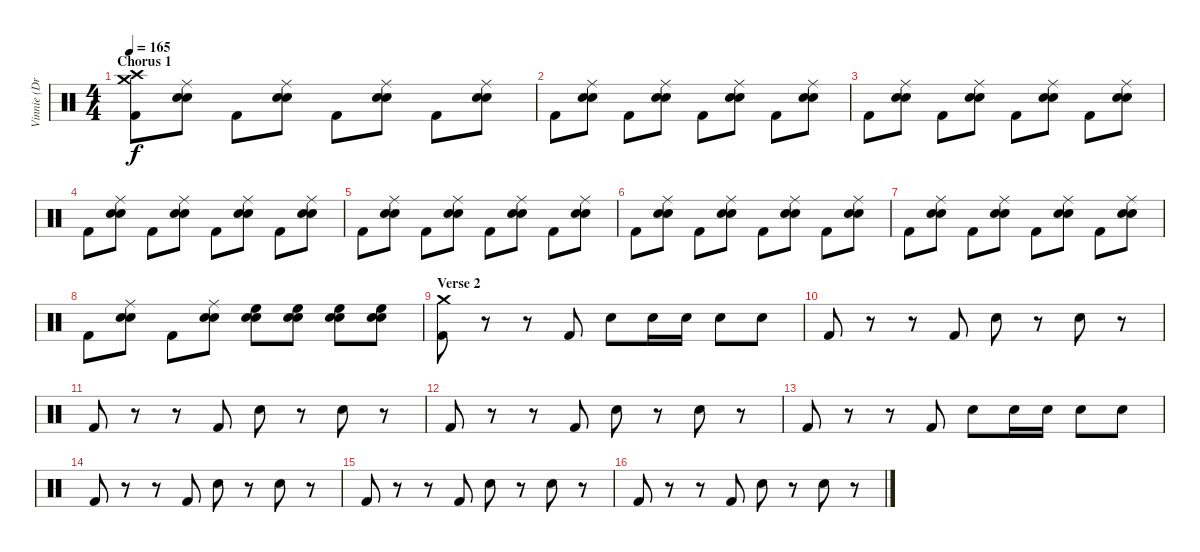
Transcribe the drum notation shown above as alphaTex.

\track ("Vinnie (Drums)" "Vinnie (Dr") {instrument percussion}
\staff {score}
\articulation defaults
\ts (4 4)
\section ("" "Chorus 1")
\tempo 165
\clef neutral
\ks c
("Kick (hit) 2" "Crash medium (hit)" "Crash high (hit)").8{dy f} ("Snare (hit) 2" "Electric Snare (hit)" "Ride (middle)").8 "Kick (hit) 2".8 ("Snare (hit) 2" "Electric Snare (hit)" "Ride (middle)").8 "Kick (hit) 2".8 ("Snare (hit) 2" "Electric Snare (hit)" "Ride (middle)").8 "Kick (hit) 2".8 ("Snare (hit) 2" "Electric Snare (hit)" "Ride (middle)").8 |
"Kick (hit) 2".8 ("Snare (hit) 2" "Electric Snare (hit)" "Ride (middle)").8 "Kick (hit) 2".8 ("Snare (hit) 2" "Electric Snare (hit)" "Ride (middle)").8 "Kick (hit) 2".8 ("Snare (hit) 2" "Electric Snare (hit)" "Ride (middle)").8 "Kick (hit) 2".8 ("Snare (hit) 2" "Electric Snare (hit)" "Ride (middle)").8 |
"Kick (hit) 2".8 ("Snare (hit) 2" "Electric Snare (hit)" "Ride (middle)").8 "Kick (hit) 2".8 ("Snare (hit) 2" "Electric Snare (hit)" "Ride (middle)").8 "Kick (hit) 2".8 ("Snare (hit) 2" "Electric Snare (hit)" "Ride (middle)").8 "Kick (hit) 2".8 ("Snare (hit) 2" "Electric Snare (hit)" "Ride (middle)").8 |
"Kick (hit) 2".8 ("Snare (hit) 2" "Electric Snare (hit)" "Ride (middle)").8 "Kick (hit) 2".8 ("Snare (hit) 2" "Electric Snare (hit)" "Ride (middle)").8 "Kick (hit) 2".8 ("Snare (hit) 2" "Electric Snare (hit)" "Ride (middle)").8 "Kick (hit) 2".8 ("Snare (hit) 2" "Electric Snare (hit)" "Ride (middle)").8 |
"Kick (hit) 2".8 ("Snare (hit) 2" "Electric Snare (hit)" "Ride (middle)").8 "Kick (hit) 2".8 ("Snare (hit) 2" "Electric Snare (hit)" "Ride (middle)").8 "Kick (hit) 2".8 ("Snare (hit) 2" "Electric Snare (hit)" "Ride (middle)").8 "Kick (hit) 2".8 ("Snare (hit) 2" "Electric Snare (hit)" "Ride (middle)").8 |
"Kick (hit) 2".8 ("Snare (hit) 2" "Electric Snare (hit)" "Ride (middle)").8 "Kick (hit) 2".8 ("Snare (hit) 2" "Electric Snare (hit)" "Ride (middle)").8 "Kick (hit) 2".8 ("Snare (hit) 2" "Electric Snare (hit)" "Ride (middle)").8 "Kick (hit) 2".8 ("Snare (hit) 2" "Electric Snare (hit)" "Ride (middle)").8 |
"Kick (hit) 2".8 ("Snare (hit) 2" "Electric Snare (hit)" "Ride (middle)").8 "Kick (hit) 2".8 ("Snare (hit) 2" "Electric Snare (hit)" "Ride (middle)").8 "Kick (hit) 2".8 ("Snare (hit) 2" "Electric Snare (hit)" "Ride (middle)").8 "Kick (hit) 2".8 ("Snare (hit) 2" "Electric Snare (hit)" "Ride (middle)").8 |
"Kick (hit) 2".8 ("Snare (hit) 2" "Electric Snare (hit)" "Ride (middle)").8 "Kick (hit) 2".8 ("Snare (hit) 2" "Electric Snare (hit)" "Ride (middle)").8 ("Electric Snare (hit)" "Snare (hit) 2" "High Floor Tom (hit)").8 ("Electric Snare (hit)" "Snare (hit) 2" "High Floor Tom (hit)").8 ("Electric Snare (hit)" "Snare (hit) 2" "High Floor Tom (hit)").8 ("Electric Snare (hit)" "Snare (hit) 2" "High Floor Tom (hit)").8 |
\section ("" "Verse 2")
("Kick (hit) 2" "Crash medium (hit)").8{volume 10} r.8 r.8 "Kick (hit) 2".8 "Snare (hit) 2".8 "Snare (hit) 2".16 "Snare (hit) 2".16 "Snare (hit) 2".8 "Snare (hit) 2".8 |
"Kick (hit) 2".8 r.8 r.8 "Kick (hit) 2".8 "Snare (hit) 2".8 r.8 "Snare (hit) 2".8 r.8 |
"Kick (hit) 2".8 r.8 r.8 "Kick (hit) 2".8 "Snare (hit) 2".8 r.8 "Snare (hit) 2".8 r.8 |
"Kick (hit) 2".8 r.8 r.8 "Kick (hit) 2".8 "Snare (hit) 2".8 r.8 "Snare (hit) 2".8 r.8 |
"Kick (hit) 2".8 r.8 r.8 "Kick (hit) 2".8 "Snare (hit) 2".8 "Snare (hit) 2".16 "Snare (hit) 2".16 "Snare (hit) 2".8 "Snare (hit) 2".8 |
"Kick (hit) 2".8 r.8 r.8 "Kick (hit) 2".8 "Snare (hit) 2".8 r.8 "Snare (hit) 2".8 r.8 |
"Kick (hit) 2".8 r.8 r.8 "Kick (hit) 2".8 "Snare (hit) 2".8 r.8 "Snare (hit) 2".8 r.8 |
"Kick (hit) 2".8 r.8 r.8 "Kick (hit) 2".8 "Snare (hit) 2".8 r.8 "Snare (hit) 2".8 r.8
